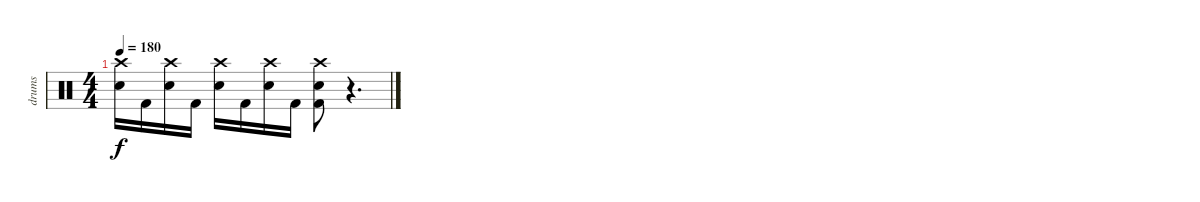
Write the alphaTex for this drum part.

\track ("drums" "drums") {instrument percussion}
\staff {score}
\articulation defaults
\ts (4 4)
\tempo 180
\clef neutral
\ks c
("Crash high (hit)" "Snare (hit) 2").16{dy f} "Kick (hit) 2".16 ("Crash high (hit)" "Snare (hit) 2").16 "Kick (hit) 2".16 ("Crash high (hit)" "Snare (hit) 2").16 "Kick (hit) 2".16 ("Crash high (hit)" "Snare (hit) 2").16 "Kick (hit) 2".16 ("Crash high (hit)" "Snare (hit) 2" "Kick (hit) 2").8 r.4{d}
